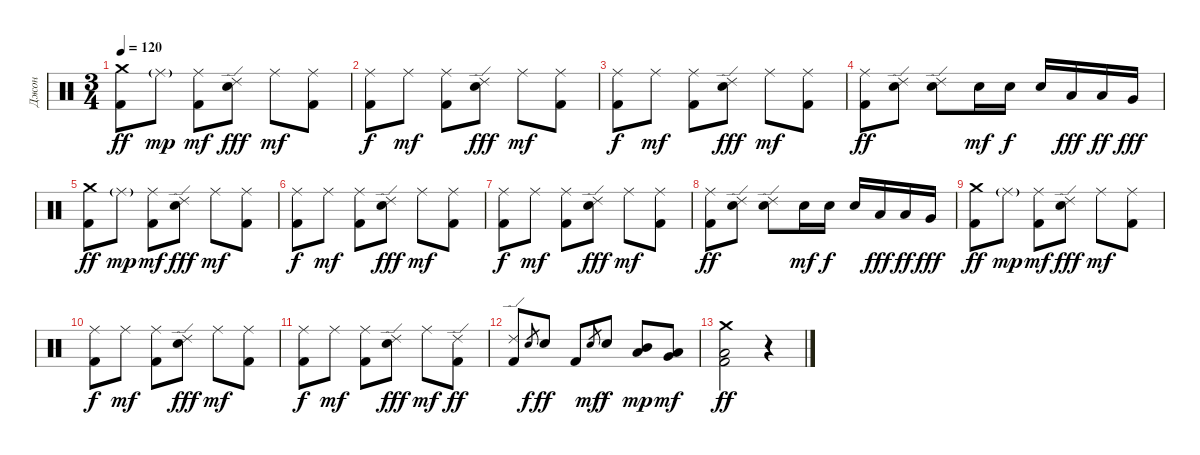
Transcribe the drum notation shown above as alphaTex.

\track ("Джон" "Джон") {instrument percussion}
\staff {score}
\articulation defaults
\ts (3 4)
\tempo 120
\clef neutral
\ks c
("Crash medium (hit)" "Kick (hit) 2").8{dy ff} "Ride (middle)"{g}.8{dy mp} ("Ride (middle)" "Kick (hit) 2").8{dy mf} ("Ride (edge) 2" "Electric Snare (hit)").8{dy fff} "Ride (middle)".8{dy mf} ("Ride (middle)" "Kick (hit) 2").8 |
("Ride (middle)" "Kick (hit) 2").8{dy f} "Ride (middle)".8{dy mf} ("Ride (middle)" "Kick (hit) 2").8 ("Ride (edge) 2" "Electric Snare (hit)").8{dy fff} "Ride (middle)".8{dy mf} ("Ride (middle)" "Kick (hit) 2").8 |
("Ride (middle)" "Kick (hit) 2").8{dy f} "Ride (middle)".8{dy mf} ("Ride (middle)" "Kick (hit) 2").8 ("Ride (edge) 2" "Electric Snare (hit)").8{dy fff} "Ride (middle)".8{dy mf} ("Ride (middle)" "Kick (hit) 2").8 |
("Ride (middle)" "Kick (hit) 2").8{dy ff} ("Ride (edge) 2" "Electric Snare (hit)").8 ("Ride (edge) 2" "Electric Snare (hit)").8 "Electric Snare (hit)".16{dy mf} "Electric Snare (hit)".16{dy f} "Electric Snare (hit)".16 "Low Tom (hit)".16{dy fff} "Low Tom (hit)".16{dy ff} "Very Low Tom (hit)".16{dy fff} |
("Crash medium (hit)" "Kick (hit) 2").8{dy ff} "Ride (middle)"{g}.8{dy mp} ("Ride (middle)" "Kick (hit) 2").8{dy mf} ("Ride (edge) 2" "Electric Snare (hit)").8{dy fff} "Ride (middle)".8{dy mf} ("Ride (middle)" "Kick (hit) 2").8 |
("Ride (middle)" "Kick (hit) 2").8{dy f} "Ride (middle)".8{dy mf} ("Ride (middle)" "Kick (hit) 2").8 ("Ride (edge) 2" "Electric Snare (hit)").8{dy fff} "Ride (middle)".8{dy mf} ("Ride (middle)" "Kick (hit) 2").8 |
("Ride (middle)" "Kick (hit) 2").8{dy f} "Ride (middle)".8{dy mf} ("Ride (middle)" "Kick (hit) 2").8 ("Ride (edge) 2" "Electric Snare (hit)").8{dy fff} "Ride (middle)".8{dy mf} ("Ride (middle)" "Kick (hit) 2").8 |
("Ride (middle)" "Kick (hit) 2").8{dy ff} ("Ride (edge) 2" "Electric Snare (hit)").8 ("Ride (edge) 2" "Electric Snare (hit)").8 "Electric Snare (hit)".16{dy mf} "Electric Snare (hit)".16{dy f} "Electric Snare (hit)".16 "Low Tom (hit)".16{dy fff} "Low Tom (hit)".16{dy ff} "Very Low Tom (hit)".16{dy fff} |
("Crash medium (hit)" "Kick (hit) 2").8{dy ff} "Ride (middle)"{g}.8{dy mp} ("Ride (middle)" "Kick (hit) 2").8{dy mf} ("Ride (edge) 2" "Electric Snare (hit)").8{dy fff} "Ride (middle)".8{dy mf} ("Ride (middle)" "Kick (hit) 2").8 |
("Ride (middle)" "Kick (hit) 2").8{dy f} "Ride (middle)".8{dy mf} ("Ride (middle)" "Kick (hit) 2").8 ("Ride (edge) 2" "Electric Snare (hit)").8{dy fff} "Ride (middle)".8{dy mf} ("Ride (middle)" "Kick (hit) 2").8 |
("Ride (middle)" "Kick (hit) 2").8{dy f} "Ride (middle)".8{dy mf} ("Ride (middle)" "Kick (hit) 2").8 ("Ride (edge) 2" "Electric Snare (hit)").8{dy fff} "Ride (middle)".8{dy mf} ("Ride (edge) 2" "Kick (hit) 2").8{dy ff} |
("Ride (edge) 2" "Kick (hit) 2").8 "Electric Snare (hit)".8{gr dy f} "Electric Snare (hit)".8{dy ff} "Kick (hit) 2".8 "Snare (hit) 2".8{gr dy mf} "Snare (hit) 2".8{dy f} ("Mid Tom (hit)" "Low Tom (hit)").8{dy mp} ("Low Tom (hit)" "Very Low Tom (hit)").8{dy mf} |
("Crash medium (hit)" "Low Floor Tom (hit)" "Kick (hit) 2").2{dy ff} r.4
